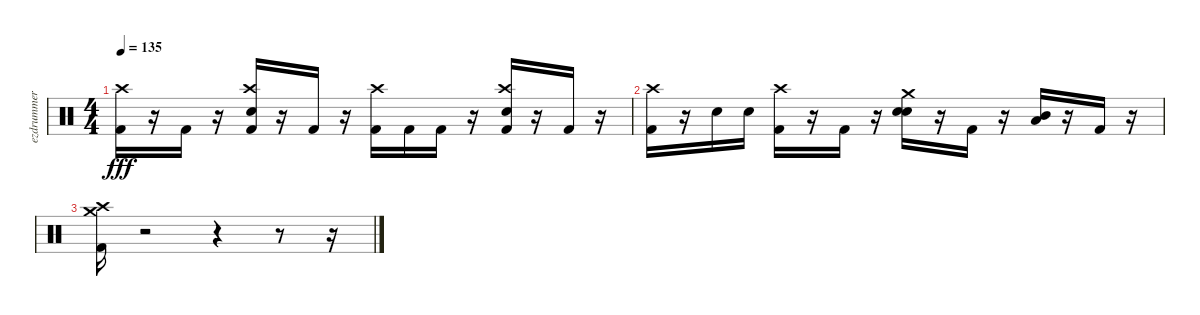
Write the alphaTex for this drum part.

\track ("ezdrummer 01" "ezdrummer ") {instrument percussion}
\staff {score}
\articulation defaults
\ts (4 4)
\tempo 135
\clef neutral
\ks c
("Kick (hit) 2" "Crash high (hit)").16{dy fff} r.16 "Kick (hit) 2".16 r.16 ("Kick (hit) 2" "Snare (hit) 2" "Crash high (hit)").16 r.16 "Kick (hit) 2".16 r.16 ("Kick (hit) 2" "Crash high (hit)").16 "Kick (hit) 2".16 "Kick (hit) 2".16 r.16 ("Kick (hit) 2" "Snare (hit) 2" "Crash high (hit)").16 r.16 "Kick (hit) 2".16 r.16 |
("Kick (hit) 2" "Crash high (hit)").16 r.16 "Snare (hit) 2".16 "Snare (hit) 2".16 ("Kick (hit) 2" "Crash high (hit)").16 r.16 "Kick (hit) 2".16 r.16 ("Snare (hit) 2" "Snare (hit) 2" "Crash medium (hit)").16 r.16 "Kick (hit) 2".16 r.16 ("Low Tom (hit)" "Mid Tom (hit)").16 r.16 "Kick (hit) 2".16 r.16 |
("Kick (hit) 2" "Crash high (hit)" "Crash medium (hit)").16 r.2 r.4 r.8 r.16
